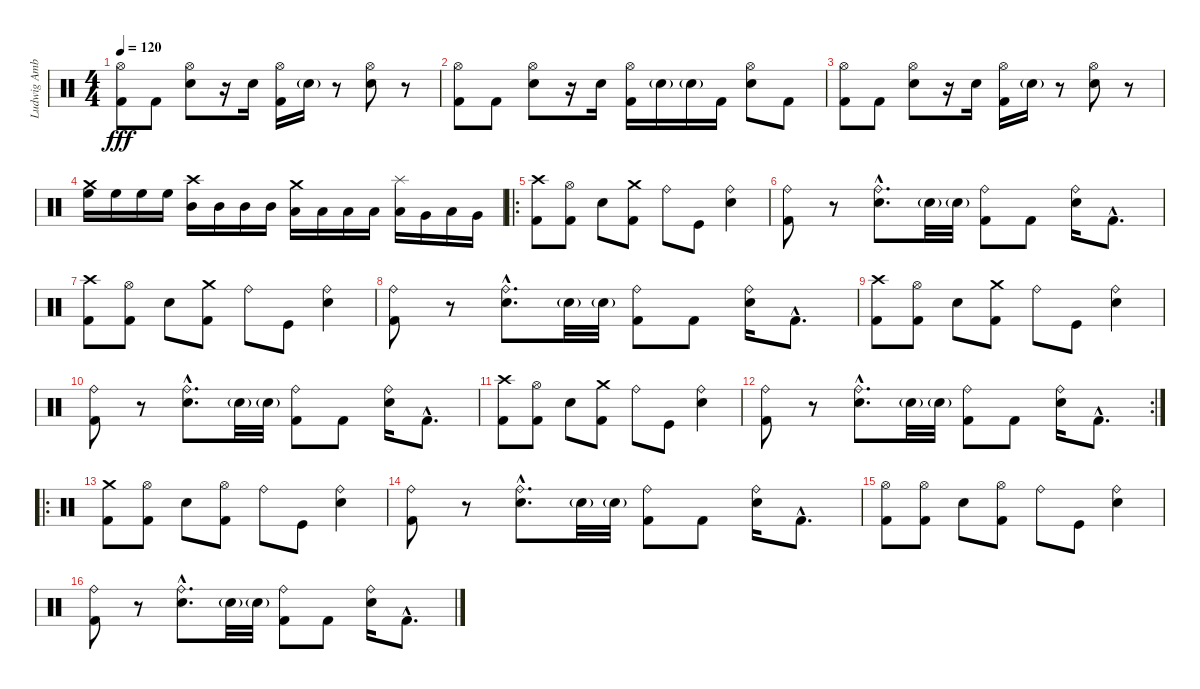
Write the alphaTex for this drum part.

\track ("Ludwig Amber Vistalite / 2x Bass Pedal" "Ludwig Amb") {instrument percussion}
\staff {score}
\articulation defaults
\ts (4 4)
\tempo 120
\clef neutral
\ks c
("Hi-Hat (open)" "Kick (hit) 2").8{dy fff} "Kick (hit) 2".8 ("Hi-Hat (open)" "Electric Snare (hit)").8 r.16 "Electric Snare (hit)".16 ("Hi-Hat (open)" "Kick (hit) 2").16 "Electric Snare (hit)"{g}.16 r.8 ("Hi-Hat (open)" "Electric Snare (hit)").8 r.8 |
("Hi-Hat (open)" "Kick (hit) 2").8 "Kick (hit) 2".8 ("Hi-Hat (open)" "Electric Snare (hit)").8 r.16 "Electric Snare (hit)".16 ("Hi-Hat (open)" "Kick (hit) 2").16 "Electric Snare (hit)"{g}.16 "Electric Snare (hit)"{g}.16 "Kick (hit) 2".16 ("Hi-Hat (open)" "Electric Snare (hit)").8 "Kick (hit) 2".8 |
("Hi-Hat (open)" "Kick (hit) 2").8 "Kick (hit) 2".8 ("Hi-Hat (open)" "Electric Snare (hit)").8 r.16 "Electric Snare (hit)".16 ("Hi-Hat (open)" "Kick (hit) 2").16 "Electric Snare (hit)"{g}.16 r.8 ("Hi-Hat (open)" "Electric Snare (hit)").8 r.8 |
("Crash medium (hit)" "High Floor Tom (hit)").16{balance 0} "High Floor Tom (hit)".16 "High Floor Tom (hit)".16 "High Floor Tom (hit)".16 ("Crash high (hit)" "Mid Tom (hit)").16{balance 16} "Mid Tom (hit)".16 "Mid Tom (hit)".16 "Mid Tom (hit)".16 ("Crash medium (hit)" "Low Tom (hit)").16{balance 0} "Low Tom (hit)".16 "Low Tom (hit)".16 "Low Tom (hit)".16 ("Splash (hit)" "Low Floor Tom (hit)").16{balance 16} "Very Low Tom (hit)".16 "Low Tom (hit)".16 "Very Low Tom (hit)".16 |
\ro
("Crash high (hit)" "Kick (hit) 2").8{balance 5} ("Hi-Hat (open)" "Kick (hit) 2").8 "Electric Snare (hit)".8 ("Crash medium (hit)" "Kick (hit) 2").8 "Ride (bell)".8 "Kick (hit)".8 ("Ride (bell)" "Electric Snare (hit)").4 |
("Ride (bell)" "Kick (hit) 2").8 r.8 ("Ride (bell)"{hac} "Electric Snare (hit)"{hac}).8{d} "Electric Snare (hit)"{g}.32 "Electric Snare (hit)"{g}.32 ("Ride (bell)" "Kick (hit) 2").8 "Kick (hit) 2".8 ("Ride (bell)" "Electric Snare (hit)").16 "Kick (hit) 2"{hac}.8{d} |
("Crash high (hit)" "Kick (hit) 2").8 ("Hi-Hat (open)" "Kick (hit) 2").8 "Electric Snare (hit)".8 ("Crash medium (hit)" "Kick (hit) 2").8 "Ride (bell)".8 "Kick (hit)".8 ("Ride (bell)" "Electric Snare (hit)").4 |
("Ride (bell)" "Kick (hit) 2").8 r.8 ("Ride (bell)"{hac} "Electric Snare (hit)"{hac}).8{d} "Electric Snare (hit)"{g}.32 "Electric Snare (hit)"{g}.32 ("Ride (bell)" "Kick (hit) 2").8 "Kick (hit) 2".8 ("Ride (bell)" "Electric Snare (hit)").16 "Kick (hit) 2"{hac}.8{d} |
("Crash high (hit)" "Kick (hit) 2").8 ("Hi-Hat (open)" "Kick (hit) 2").8 "Electric Snare (hit)".8 ("Crash medium (hit)" "Kick (hit) 2").8 "Ride (bell)".8 "Kick (hit)".8 ("Ride (bell)" "Electric Snare (hit)").4 |
("Ride (bell)" "Kick (hit) 2").8 r.8 ("Ride (bell)"{hac} "Electric Snare (hit)"{hac}).8{d} "Electric Snare (hit)"{g}.32 "Electric Snare (hit)"{g}.32 ("Ride (bell)" "Kick (hit) 2").8 "Kick (hit) 2".8 ("Ride (bell)" "Electric Snare (hit)").16 "Kick (hit) 2"{hac}.8{d} |
("Crash high (hit)" "Kick (hit) 2").8 ("Hi-Hat (open)" "Kick (hit) 2").8 "Electric Snare (hit)".8 ("Crash medium (hit)" "Kick (hit) 2").8 "Ride (bell)".8 "Kick (hit)".8 ("Ride (bell)" "Electric Snare (hit)").4 |
\rc 2
("Ride (bell)" "Kick (hit) 2").8 r.8 ("Ride (bell)"{hac} "Electric Snare (hit)"{hac}).8{d} "Electric Snare (hit)"{g}.32 "Electric Snare (hit)"{g}.32 ("Ride (bell)" "Kick (hit) 2").8 "Kick (hit) 2".8 ("Ride (bell)" "Electric Snare (hit)").16 "Kick (hit) 2"{hac}.8{d} |
\ro
("Crash medium (hit)" "Kick (hit) 2").8{balance 5} ("Hi-Hat (open)" "Kick (hit) 2").8 "Electric Snare (hit)".8 ("Hi-Hat (open)" "Kick (hit) 2").8 "Ride (bell)".8 "Kick (hit)".8 ("Ride (bell)" "Electric Snare (hit)").4 |
("Ride (bell)" "Kick (hit) 2").8 r.8 ("Ride (bell)"{hac} "Electric Snare (hit)"{hac}).8{d} "Electric Snare (hit)"{g}.32 "Electric Snare (hit)"{g}.32 ("Ride (bell)" "Kick (hit) 2").8 "Kick (hit) 2".8 ("Ride (bell)" "Electric Snare (hit)").16 "Kick (hit) 2"{hac}.8{d} |
("Hi-Hat (open)" "Kick (hit) 2").8 ("Hi-Hat (open)" "Kick (hit) 2").8 "Electric Snare (hit)".8 ("Hi-Hat (open)" "Kick (hit) 2").8 "Ride (bell)".8 "Kick (hit)".8 ("Ride (bell)" "Electric Snare (hit)").4 |
("Ride (bell)" "Kick (hit) 2").8 r.8 ("Ride (bell)"{hac} "Electric Snare (hit)"{hac}).8{d} "Electric Snare (hit)"{g}.32 "Electric Snare (hit)"{g}.32 ("Ride (bell)" "Kick (hit) 2").8 "Kick (hit) 2".8 ("Ride (bell)" "Electric Snare (hit)").16 "Kick (hit) 2"{hac}.8{d}
